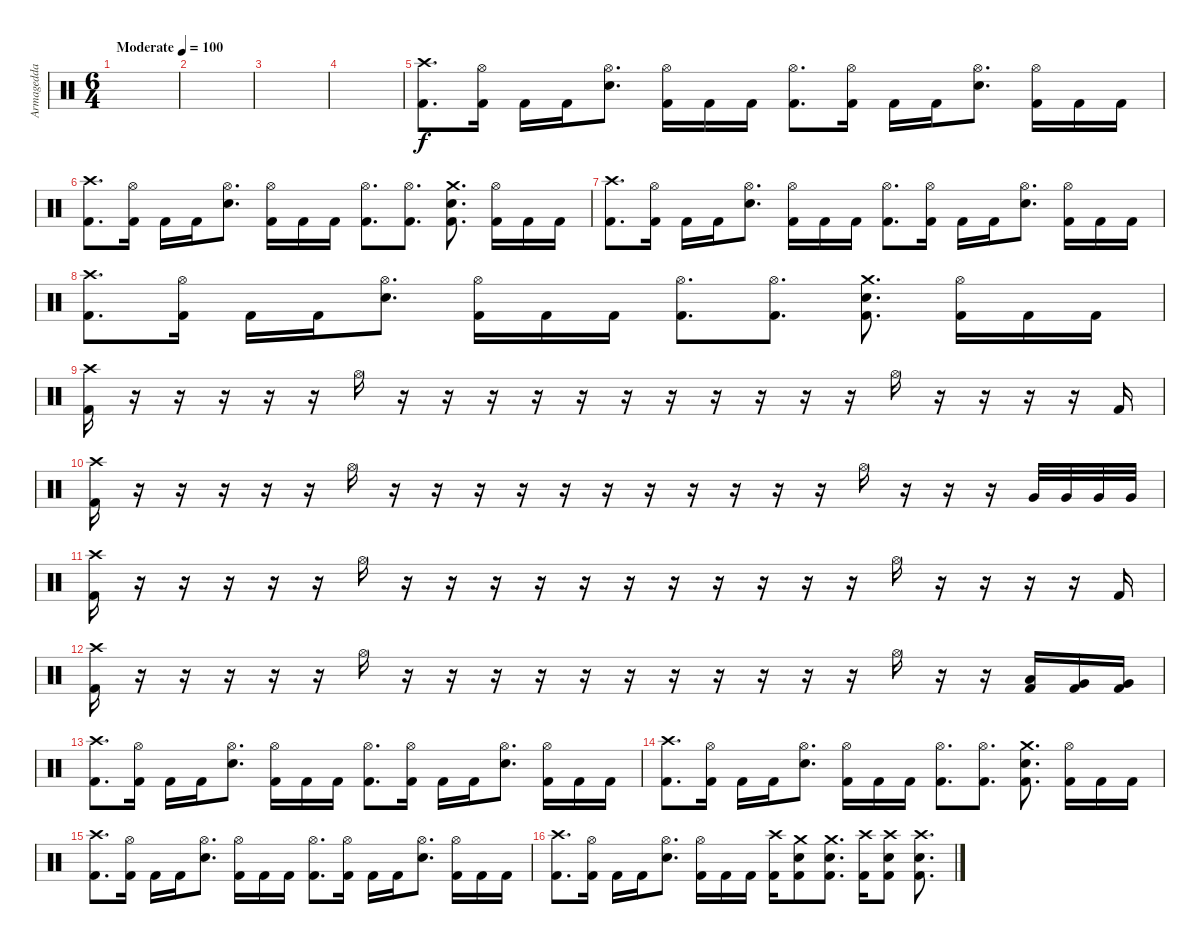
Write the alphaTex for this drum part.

\track ("Armagedda" "Armagedda") {instrument percussion}
\staff {score}
\articulation defaults
\ts (6 4)
\tempo (100 "Moderate")
\clef neutral
\ks c
|
|
|
|
("Crash high (hit)" "Kick (hit) 2").8{d} ("Hi-Hat (open)" "Kick (hit) 2").16 "Kick (hit) 2".16 "Kick (hit) 2".16 ("Hi-Hat (open)" "Snare (hit) 2").8{d} ("Hi-Hat (open)" "Kick (hit) 2").16 "Kick (hit) 2".16 "Kick (hit) 2".16 ("Hi-Hat (open)" "Kick (hit) 2").8{d} ("Hi-Hat (open)" "Kick (hit) 2").16 "Kick (hit) 2".16 "Kick (hit) 2".16 ("Hi-Hat (open)" "Snare (hit) 2").8{d} ("Hi-Hat (open)" "Kick (hit) 2").16 "Kick (hit) 2".16 "Kick (hit) 2".16 |
("Crash high (hit)" "Kick (hit) 2").8{d} ("Hi-Hat (open)" "Kick (hit) 2").16 "Kick (hit) 2".16 "Kick (hit) 2".16 ("Hi-Hat (open)" "Snare (hit) 2").8{d} ("Hi-Hat (open)" "Kick (hit) 2").16 "Kick (hit) 2".16 "Kick (hit) 2".16 ("Hi-Hat (open)" "Kick (hit) 2").8{d} ("Hi-Hat (open)" "Kick (hit) 2").8{d} ("Crash medium (hit)" "Snare (hit) 2" "Kick (hit) 2").8{d} ("Hi-Hat (open)" "Kick (hit) 2").16 "Kick (hit) 2".16 "Kick (hit) 2".16 |
("Crash high (hit)" "Kick (hit) 2").8{d} ("Hi-Hat (open)" "Kick (hit) 2").16 "Kick (hit) 2".16 "Kick (hit) 2".16 ("Hi-Hat (open)" "Snare (hit) 2").8{d} ("Hi-Hat (open)" "Kick (hit) 2").16 "Kick (hit) 2".16 "Kick (hit) 2".16 ("Hi-Hat (open)" "Kick (hit) 2").8{d} ("Hi-Hat (open)" "Kick (hit) 2").16 "Kick (hit) 2".16 "Kick (hit) 2".16 ("Hi-Hat (open)" "Snare (hit) 2").8{d} ("Hi-Hat (open)" "Kick (hit) 2").16 "Kick (hit) 2".16 "Kick (hit) 2".16 |
("Crash high (hit)" "Kick (hit) 2").8{d} ("Hi-Hat (open)" "Kick (hit) 2").16 "Kick (hit) 2".16 "Kick (hit) 2".16 ("Hi-Hat (open)" "Snare (hit) 2").8{d} ("Hi-Hat (open)" "Kick (hit) 2").16 "Kick (hit) 2".16 "Kick (hit) 2".16 ("Hi-Hat (open)" "Kick (hit) 2").8{d} ("Hi-Hat (open)" "Kick (hit) 2").8{d} ("Crash medium (hit)" "Snare (hit) 2" "Kick (hit) 2").8{d} ("Hi-Hat (open)" "Kick (hit) 2").16 "Kick (hit) 2".16 "Kick (hit) 2".16 |
("Crash high (hit)" "Kick (hit) 2").16 r.16 r.16 r.16 r.16 r.16 "Hi-Hat (open)".16 r.16 r.16 r.16 r.16 r.16 r.16 r.16 r.16 r.16 r.16 r.16 "Hi-Hat (open)".16 r.16 r.16 r.16 r.16 "Kick (hit) 2".16 |
("Crash high (hit)" "Kick (hit) 2").16 r.16 r.16 r.16 r.16 r.16 "Hi-Hat (open)".16 r.16 r.16 r.16 r.16 r.16 r.16 r.16 r.16 r.16 r.16 r.16 "Hi-Hat (open)".16 r.16 r.16 r.16 "Very Low Tom (hit)".32 "Very Low Tom (hit)".32 "Very Low Tom (hit)".32 "Very Low Tom (hit)".32 |
("Crash high (hit)" "Kick (hit) 2").16 r.16 r.16 r.16 r.16 r.16 "Hi-Hat (open)".16 r.16 r.16 r.16 r.16 r.16 r.16 r.16 r.16 r.16 r.16 r.16 "Hi-Hat (open)".16 r.16 r.16 r.16 r.16 "Kick (hit) 2".16 |
("Crash high (hit)" "Kick (hit) 2").16 r.16 r.16 r.16 r.16 r.16 "Hi-Hat (open)".16 r.16 r.16 r.16 r.16 r.16 r.16 r.16 r.16 r.16 r.16 r.16 "Hi-Hat (open)".16 r.16 r.16 ("Low Floor Tom (hit)" "Kick (hit) 2").16 ("Very Low Tom (hit)" "Kick (hit) 2").16 ("Very Low Tom (hit)" "Kick (hit) 2").16 |
("Crash high (hit)" "Kick (hit) 2").8{d} ("Hi-Hat (open)" "Kick (hit) 2").16 "Kick (hit) 2".16 "Kick (hit) 2".16 ("Hi-Hat (open)" "Snare (hit) 2").8{d} ("Hi-Hat (open)" "Kick (hit) 2").16 "Kick (hit) 2".16 "Kick (hit) 2".16 ("Hi-Hat (open)" "Kick (hit) 2").8{d} ("Hi-Hat (open)" "Kick (hit) 2").16 "Kick (hit) 2".16 "Kick (hit) 2".16 ("Hi-Hat (open)" "Snare (hit) 2").8{d} ("Hi-Hat (open)" "Kick (hit) 2").16 "Kick (hit) 2".16 "Kick (hit) 2".16 |
("Crash high (hit)" "Kick (hit) 2").8{d} ("Hi-Hat (open)" "Kick (hit) 2").16 "Kick (hit) 2".16 "Kick (hit) 2".16 ("Hi-Hat (open)" "Snare (hit) 2").8{d} ("Hi-Hat (open)" "Kick (hit) 2").16 "Kick (hit) 2".16 "Kick (hit) 2".16 ("Hi-Hat (open)" "Kick (hit) 2").8{d} ("Hi-Hat (open)" "Kick (hit) 2").8{d} ("Crash medium (hit)" "Snare (hit) 2" "Kick (hit) 2").8{d} ("Hi-Hat (open)" "Kick (hit) 2").16 "Kick (hit) 2".16 "Kick (hit) 2".16 |
("Crash high (hit)" "Kick (hit) 2").8{d} ("Hi-Hat (open)" "Kick (hit) 2").16 "Kick (hit) 2".16 "Kick (hit) 2".16 ("Hi-Hat (open)" "Snare (hit) 2").8{d} ("Hi-Hat (open)" "Kick (hit) 2").16 "Kick (hit) 2".16 "Kick (hit) 2".16 ("Hi-Hat (open)" "Kick (hit) 2").8{d} ("Hi-Hat (open)" "Kick (hit) 2").16 "Kick (hit) 2".16 "Kick (hit) 2".16 ("Hi-Hat (open)" "Snare (hit) 2").8{d} ("Hi-Hat (open)" "Kick (hit) 2").16 "Kick (hit) 2".16 "Kick (hit) 2".16 |
("Crash high (hit)" "Kick (hit) 2").8{d} ("Hi-Hat (open)" "Kick (hit) 2").16 "Kick (hit) 2".16 "Kick (hit) 2".16 ("Hi-Hat (open)" "Snare (hit) 2").8{d} ("Hi-Hat (open)" "Kick (hit) 2").16 "Kick (hit) 2".16 "Kick (hit) 2".16 ("Crash high (hit)" "Kick (hit) 2").16 ("Crash medium (hit)" "Snare (hit) 2" "Kick (hit) 2").8 ("Crash medium (hit)" "Snare (hit) 2" "Kick (hit) 2").8{d} ("Crash high (hit)" "Kick (hit) 2").16 ("Crash high (hit)" "Snare (hit) 2" "Kick (hit) 2").8 ("Crash high (hit)" "Snare (hit) 2" "Kick (hit) 2").8{d}
